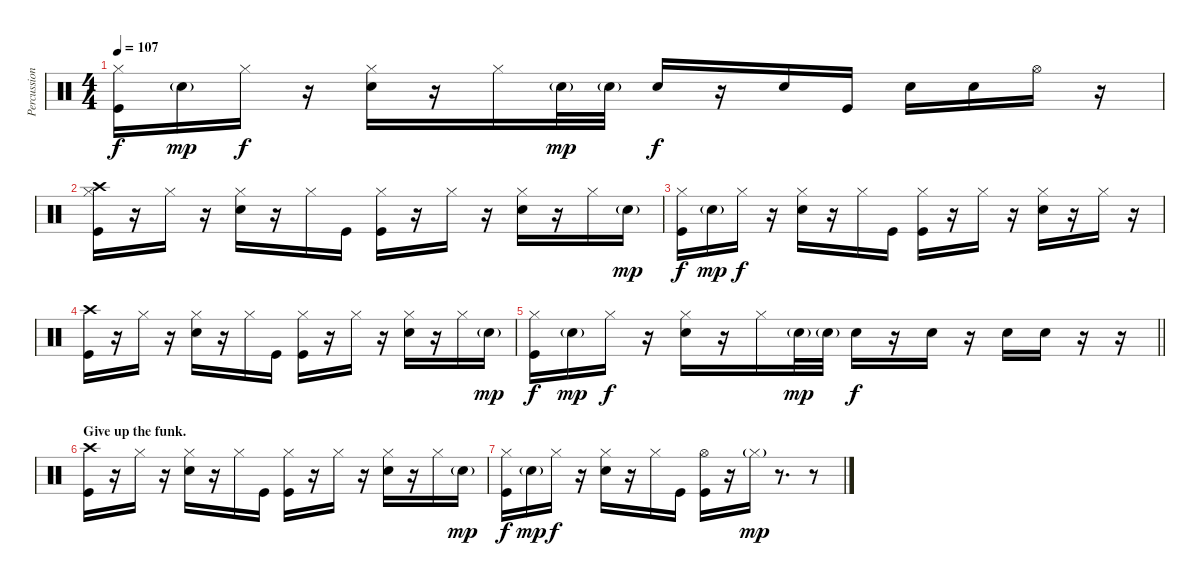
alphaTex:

\track ("Percussion" "Percussion") {instrument percussion}
\staff {score}
\articulation defaults
\ts (4 4)
\tempo 107
\clef neutral
\ks c
("Hi-Hat (closed)" "Kick (hit)").16{dy f} "Snare (hit) 2"{g}.16{dy mp} "Hi-Hat (closed)".16{dy f} r.16 ("Hi-Hat (closed)" "Snare (hit) 2").16 r.16 "Hi-Hat (closed)".16 "Snare (hit) 2"{g}.32{dy mp} "Snare (hit) 2"{g}.32 "Snare (hit) 2".16{dy f} r.16 "Snare (hit) 2".16 "Kick (hit)".16 "Snare (hit) 2".16 "Snare (hit) 2".16 "Hi-Hat (open)".16 r.16 |
("Crash high (hit)" "Hi-Hat (closed)" "Kick (hit)").16 r.16 "Hi-Hat (closed)".16 r.16 ("Hi-Hat (closed)" "Snare (hit) 2").16 r.16 "Hi-Hat (closed)".16 "Kick (hit)".16 ("Hi-Hat (closed)" "Kick (hit)").16 r.16 "Hi-Hat (closed)".16 r.16 ("Hi-Hat (closed)" "Snare (hit) 2").16 r.16 "Hi-Hat (closed)".16 "Snare (hit) 2"{g}.16{dy mp} |
("Hi-Hat (closed)" "Kick (hit)").16{dy f} "Snare (hit) 2"{g}.16{dy mp} "Hi-Hat (closed)".16{dy f} r.16 ("Hi-Hat (closed)" "Snare (hit) 2").16 r.16 "Hi-Hat (closed)".16 "Kick (hit)".16 ("Hi-Hat (closed)" "Kick (hit)").16 r.16 "Hi-Hat (closed)".16 r.16 ("Hi-Hat (closed)" "Snare (hit) 2").16 r.16 "Hi-Hat (closed)".16 r.16 |
("Crash high (hit)" "Kick (hit)").16 r.16 "Hi-Hat (closed)".16 r.16 ("Hi-Hat (closed)" "Snare (hit) 2").16 r.16 "Hi-Hat (closed)".16 "Kick (hit)".16 ("Hi-Hat (closed)" "Kick (hit)").16 r.16 "Hi-Hat (closed)".16 r.16 ("Hi-Hat (closed)" "Snare (hit) 2").16 r.16 "Hi-Hat (closed)".16 "Snare (hit) 2"{g}.16{dy mp} |
\barLineRight lightlight
("Hi-Hat (closed)" "Kick (hit)").16{dy f} "Snare (hit) 2"{g}.16{dy mp} "Hi-Hat (closed)".16{dy f} r.16 ("Hi-Hat (closed)" "Snare (hit) 2").16 r.16 "Hi-Hat (closed)".16 "Snare (hit) 2"{g}.32{dy mp} "Snare (hit) 2"{g}.32 "Snare (hit) 2".16{dy f} r.16 "Snare (hit) 2".16 r.16 "Snare (hit) 2".16 "Snare (hit) 2".16 r.16 r.16 |
\section ("" "Give up the funk.")
("Crash high (hit)" "Kick (hit)").16 r.16 "Hi-Hat (closed)".16 r.16 ("Hi-Hat (closed)" "Snare (hit) 2").16 r.16 "Hi-Hat (closed)".16 "Kick (hit)".16 ("Hi-Hat (closed)" "Kick (hit)").16 r.16 "Hi-Hat (closed)".16 r.16 ("Hi-Hat (closed)" "Snare (hit) 2").16 r.16 "Hi-Hat (closed)".16 "Snare (hit) 2"{g}.16{dy mp} |
("Hi-Hat (closed)" "Kick (hit)").16{dy f} "Snare (hit) 2"{g}.16{dy mp} "Hi-Hat (closed)".16{dy f} r.16 ("Hi-Hat (closed)" "Snare (hit) 2").16 r.16 "Hi-Hat (closed)".16 "Kick (hit)".16 ("Hi-Hat (open)" "Kick (hit)").16 r.16 "Hi-Hat (closed)"{g}.16{dy mp} r.8{d} r.8
